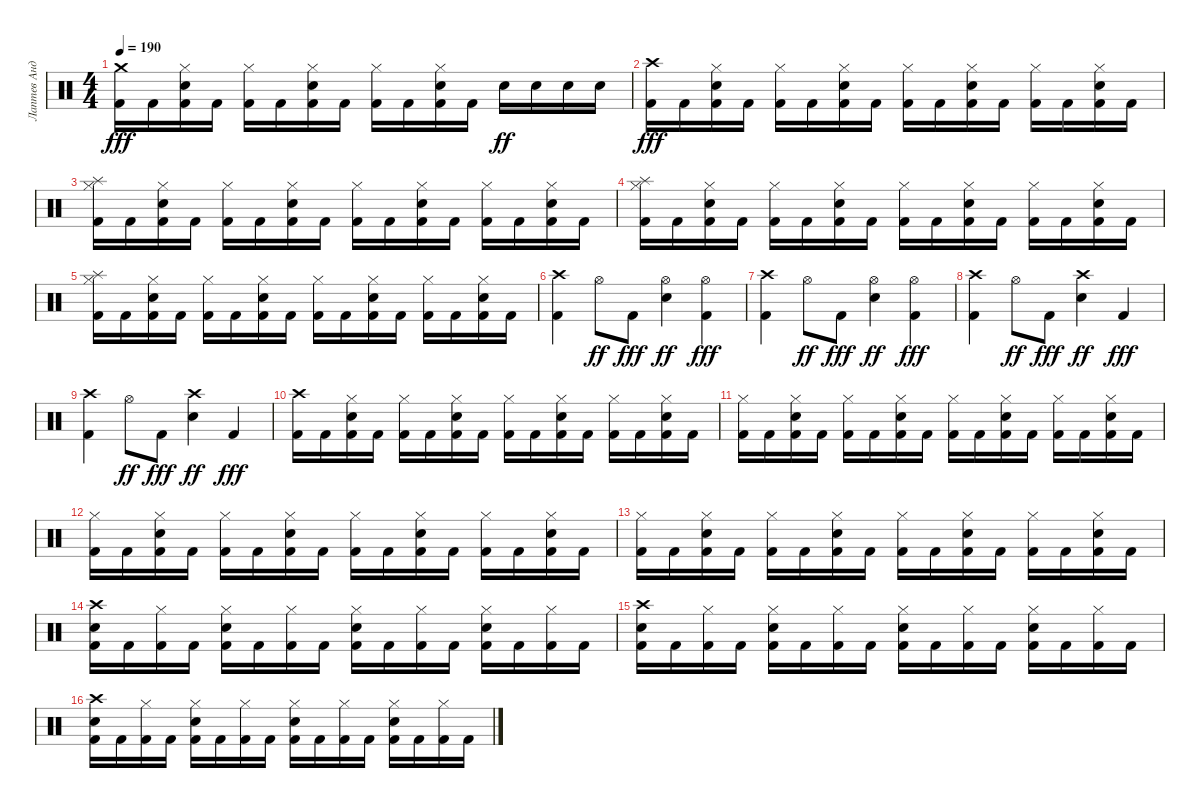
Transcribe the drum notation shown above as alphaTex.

\track ("Лаптев Андрей" "Лаптев Анд") {instrument percussion}
\staff {score}
\articulation defaults
\ts (4 4)
\tempo 190
\clef neutral
\ks c
("Crash medium (hit)" "Kick (hit) 2").16{dy fff} "Kick (hit) 2".16 ("Hi-Hat (closed)" "Electric Snare (hit)" "Kick (hit) 2").16 "Kick (hit) 2".16 ("Hi-Hat (closed)" "Kick (hit) 2").16 "Kick (hit) 2".16 ("Hi-Hat (closed)" "Electric Snare (hit)" "Kick (hit) 2").16 "Kick (hit) 2".16 ("Hi-Hat (closed)" "Kick (hit) 2").16 "Kick (hit) 2".16 ("Electric Snare (hit)" "Hi-Hat (closed)" "Kick (hit) 2").16 "Kick (hit) 2".16 "Electric Snare (hit)".16{dy ff} "Electric Snare (hit)".16 "Electric Snare (hit)".16 "Electric Snare (hit)".16 |
("Crash high (hit)" "Kick (hit) 2").16{dy fff} "Kick (hit) 2".16 ("Hi-Hat (closed)" "Electric Snare (hit)" "Kick (hit) 2").16 "Kick (hit) 2".16 ("Hi-Hat (closed)" "Kick (hit) 2").16 "Kick (hit) 2".16 ("Hi-Hat (closed)" "Electric Snare (hit)" "Kick (hit) 2").16 "Kick (hit) 2".16 ("Hi-Hat (closed)" "Kick (hit) 2").16 "Kick (hit) 2".16 ("Electric Snare (hit)" "Hi-Hat (closed)" "Kick (hit) 2").16 "Kick (hit) 2".16 ("Hi-Hat (closed)" "Kick (hit) 2").16 "Kick (hit) 2".16 ("Hi-Hat (closed)" "Electric Snare (hit)" "Kick (hit) 2").16 "Kick (hit) 2".16 |
("Splash (hit)" "Hi-Hat (closed)" "Kick (hit) 2").16 "Kick (hit) 2".16 ("Hi-Hat (closed)" "Electric Snare (hit)" "Kick (hit) 2").16 "Kick (hit) 2".16 ("Hi-Hat (closed)" "Kick (hit) 2").16 "Kick (hit) 2".16 ("Hi-Hat (closed)" "Electric Snare (hit)" "Kick (hit) 2").16 "Kick (hit) 2".16 ("Hi-Hat (closed)" "Kick (hit) 2").16 "Kick (hit) 2".16 ("Electric Snare (hit)" "Hi-Hat (closed)" "Kick (hit) 2").16 "Kick (hit) 2".16 ("Hi-Hat (closed)" "Kick (hit) 2").16 "Kick (hit) 2".16 ("Hi-Hat (closed)" "Electric Snare (hit)" "Kick (hit) 2").16 "Kick (hit) 2".16 |
("Hi-Hat (closed)" "Splash (hit)" "Kick (hit) 2").16 "Kick (hit) 2".16 ("Hi-Hat (closed)" "Electric Snare (hit)" "Kick (hit) 2").16 "Kick (hit) 2".16 ("Hi-Hat (closed)" "Kick (hit) 2").16 "Kick (hit) 2".16 ("Hi-Hat (closed)" "Electric Snare (hit)" "Kick (hit) 2").16 "Kick (hit) 2".16 ("Hi-Hat (closed)" "Kick (hit) 2").16 "Kick (hit) 2".16 ("Hi-Hat (closed)" "Electric Snare (hit)" "Kick (hit) 2").16 "Kick (hit) 2".16 ("Hi-Hat (closed)" "Kick (hit) 2").16 "Kick (hit) 2".16 ("Hi-Hat (closed)" "Electric Snare (hit)" "Kick (hit) 2").16 "Kick (hit) 2".16 |
("Splash (hit)" "Hi-Hat (closed)" "Kick (hit) 2").16 "Kick (hit) 2".16 ("Hi-Hat (closed)" "Electric Snare (hit)" "Kick (hit) 2").16 "Kick (hit) 2".16 ("Hi-Hat (closed)" "Kick (hit) 2").16 "Kick (hit) 2".16 ("Hi-Hat (closed)" "Electric Snare (hit)" "Kick (hit) 2").16 "Kick (hit) 2".16 ("Hi-Hat (closed)" "Kick (hit) 2").16 "Kick (hit) 2".16 ("Hi-Hat (closed)" "Electric Snare (hit)" "Kick (hit) 2").16 "Kick (hit) 2".16 ("Hi-Hat (closed)" "Kick (hit) 2").16 "Kick (hit) 2".16 ("Hi-Hat (closed)" "Electric Snare (hit)" "Kick (hit) 2").16 "Kick (hit) 2".16 |
("Crash high (hit)" "Kick (hit) 2").4 "Hi-Hat (open)".8{dy ff} "Kick (hit) 2".8{dy fff} ("Snare (hit) 2" "Hi-Hat (open)").4{dy ff} ("Hi-Hat (open)" "Kick (hit) 2").4{dy fff} |
("Crash high (hit)" "Kick (hit) 2").4 "Hi-Hat (open)".8{dy ff} "Kick (hit) 2".8{dy fff} ("Snare (hit) 2" "Hi-Hat (open)").4{dy ff} ("Hi-Hat (open)" "Kick (hit) 2").4{dy fff} |
("Crash high (hit)" "Kick (hit) 2").4 "Hi-Hat (open)".8{dy ff} "Kick (hit) 2".8{dy fff} ("Snare (hit) 2" "Crash high (hit)").4{dy ff} "Kick (hit) 2".4{dy fff} |
("Crash high (hit)" "Kick (hit) 2").4 "Hi-Hat (open)".8{dy ff} "Kick (hit) 2".8{dy fff} ("Snare (hit) 2" "Crash high (hit)").4{dy ff} "Kick (hit) 2".4{dy fff} |
("Crash high (hit)" "Kick (hit) 2").16 "Kick (hit) 2".16 ("Hi-Hat (closed)" "Electric Snare (hit)" "Kick (hit) 2").16 "Kick (hit) 2".16 ("Hi-Hat (closed)" "Kick (hit) 2").16 "Kick (hit) 2".16 ("Electric Snare (hit)" "Hi-Hat (closed)" "Kick (hit) 2").16 "Kick (hit) 2".16 ("Hi-Hat (closed)" "Kick (hit) 2").16 "Kick (hit) 2".16 ("Electric Snare (hit)" "Hi-Hat (closed)" "Kick (hit) 2").16 "Kick (hit) 2".16 ("Hi-Hat (closed)" "Kick (hit) 2").16 "Kick (hit) 2".16 ("Electric Snare (hit)" "Hi-Hat (closed)" "Kick (hit) 2").16 "Kick (hit) 2".16 |
("Hi-Hat (closed)" "Kick (hit) 2").16 "Kick (hit) 2".16 ("Electric Snare (hit)" "Hi-Hat (closed)" "Kick (hit) 2").16 "Kick (hit) 2".16 ("Hi-Hat (closed)" "Kick (hit) 2").16 "Kick (hit) 2".16 ("Hi-Hat (closed)" "Electric Snare (hit)" "Kick (hit) 2").16 "Kick (hit) 2".16 ("Hi-Hat (closed)" "Kick (hit) 2").16 "Kick (hit) 2".16 ("Electric Snare (hit)" "Hi-Hat (closed)" "Kick (hit) 2").16 "Kick (hit) 2".16 ("Hi-Hat (closed)" "Kick (hit) 2").16 "Kick (hit) 2".16 ("Electric Snare (hit)" "Hi-Hat (closed)" "Kick (hit) 2").16 "Kick (hit) 2".16 |
("Hi-Hat (closed)" "Kick (hit) 2").16 "Kick (hit) 2".16 ("Electric Snare (hit)" "Hi-Hat (closed)" "Kick (hit) 2").16 "Kick (hit) 2".16 ("Hi-Hat (closed)" "Kick (hit) 2").16 "Kick (hit) 2".16 ("Electric Snare (hit)" "Hi-Hat (closed)" "Kick (hit) 2").16 "Kick (hit) 2".16 ("Hi-Hat (closed)" "Kick (hit) 2").16 "Kick (hit) 2".16 ("Electric Snare (hit)" "Hi-Hat (closed)" "Kick (hit) 2").16 "Kick (hit) 2".16 ("Hi-Hat (closed)" "Kick (hit) 2").16 "Kick (hit) 2".16 ("Electric Snare (hit)" "Hi-Hat (closed)" "Kick (hit) 2").16 "Kick (hit) 2".16 |
("Hi-Hat (closed)" "Kick (hit) 2").16 "Kick (hit) 2".16 ("Electric Snare (hit)" "Hi-Hat (closed)" "Kick (hit) 2").16 "Kick (hit) 2".16 ("Hi-Hat (closed)" "Kick (hit) 2").16 "Kick (hit) 2".16 ("Electric Snare (hit)" "Hi-Hat (closed)" "Kick (hit) 2").16 "Kick (hit) 2".16 ("Hi-Hat (closed)" "Kick (hit) 2").16 "Kick (hit) 2".16 ("Electric Snare (hit)" "Hi-Hat (closed)" "Kick (hit) 2").16 "Kick (hit) 2".16 ("Hi-Hat (closed)" "Kick (hit) 2").16 "Kick (hit) 2".16 ("Hi-Hat (closed)" "Electric Snare (hit)" "Kick (hit) 2").16 "Kick (hit) 2".16 |
("Crash high (hit)" "Electric Snare (hit)" "Kick (hit) 2").16 "Kick (hit) 2".16 ("Hi-Hat (closed)" "Kick (hit) 2").16 "Kick (hit) 2".16 ("Hi-Hat (closed)" "Electric Snare (hit)" "Kick (hit) 2").16 "Kick (hit) 2".16 ("Hi-Hat (closed)" "Kick (hit) 2").16 "Kick (hit) 2".16 ("Hi-Hat (closed)" "Electric Snare (hit)" "Kick (hit) 2").16 "Kick (hit) 2".16 ("Hi-Hat (closed)" "Kick (hit) 2").16 "Kick (hit) 2".16 ("Hi-Hat (closed)" "Electric Snare (hit)" "Kick (hit) 2").16 "Kick (hit) 2".16 ("Hi-Hat (closed)" "Kick (hit) 2").16 "Kick (hit) 2".16 |
("Electric Snare (hit)" "Crash high (hit)" "Kick (hit) 2").16 "Kick (hit) 2".16 ("Hi-Hat (closed)" "Kick (hit) 2").16 "Kick (hit) 2".16 ("Electric Snare (hit)" "Hi-Hat (closed)" "Kick (hit) 2").16 "Kick (hit) 2".16 ("Hi-Hat (closed)" "Kick (hit) 2").16 "Kick (hit) 2".16 ("Electric Snare (hit)" "Hi-Hat (closed)" "Kick (hit) 2").16 "Kick (hit) 2".16 ("Hi-Hat (closed)" "Kick (hit) 2").16 "Kick (hit) 2".16 ("Electric Snare (hit)" "Hi-Hat (closed)" "Kick (hit) 2").16 "Kick (hit) 2".16 ("Hi-Hat (closed)" "Kick (hit) 2").16 "Kick (hit) 2".16 |
("Electric Snare (hit)" "Crash high (hit)" "Kick (hit) 2").16 "Kick (hit) 2".16 ("Hi-Hat (closed)" "Kick (hit) 2").16 "Kick (hit) 2".16 ("Electric Snare (hit)" "Hi-Hat (closed)" "Kick (hit) 2").16 "Kick (hit) 2".16 ("Hi-Hat (closed)" "Kick (hit) 2").16 "Kick (hit) 2".16 ("Electric Snare (hit)" "Hi-Hat (closed)" "Kick (hit) 2").16 "Kick (hit) 2".16 ("Hi-Hat (closed)" "Kick (hit) 2").16 "Kick (hit) 2".16 ("Electric Snare (hit)" "Hi-Hat (closed)" "Kick (hit) 2").16 "Kick (hit) 2".16 ("Hi-Hat (closed)" "Kick (hit) 2").16 "Kick (hit) 2".16
